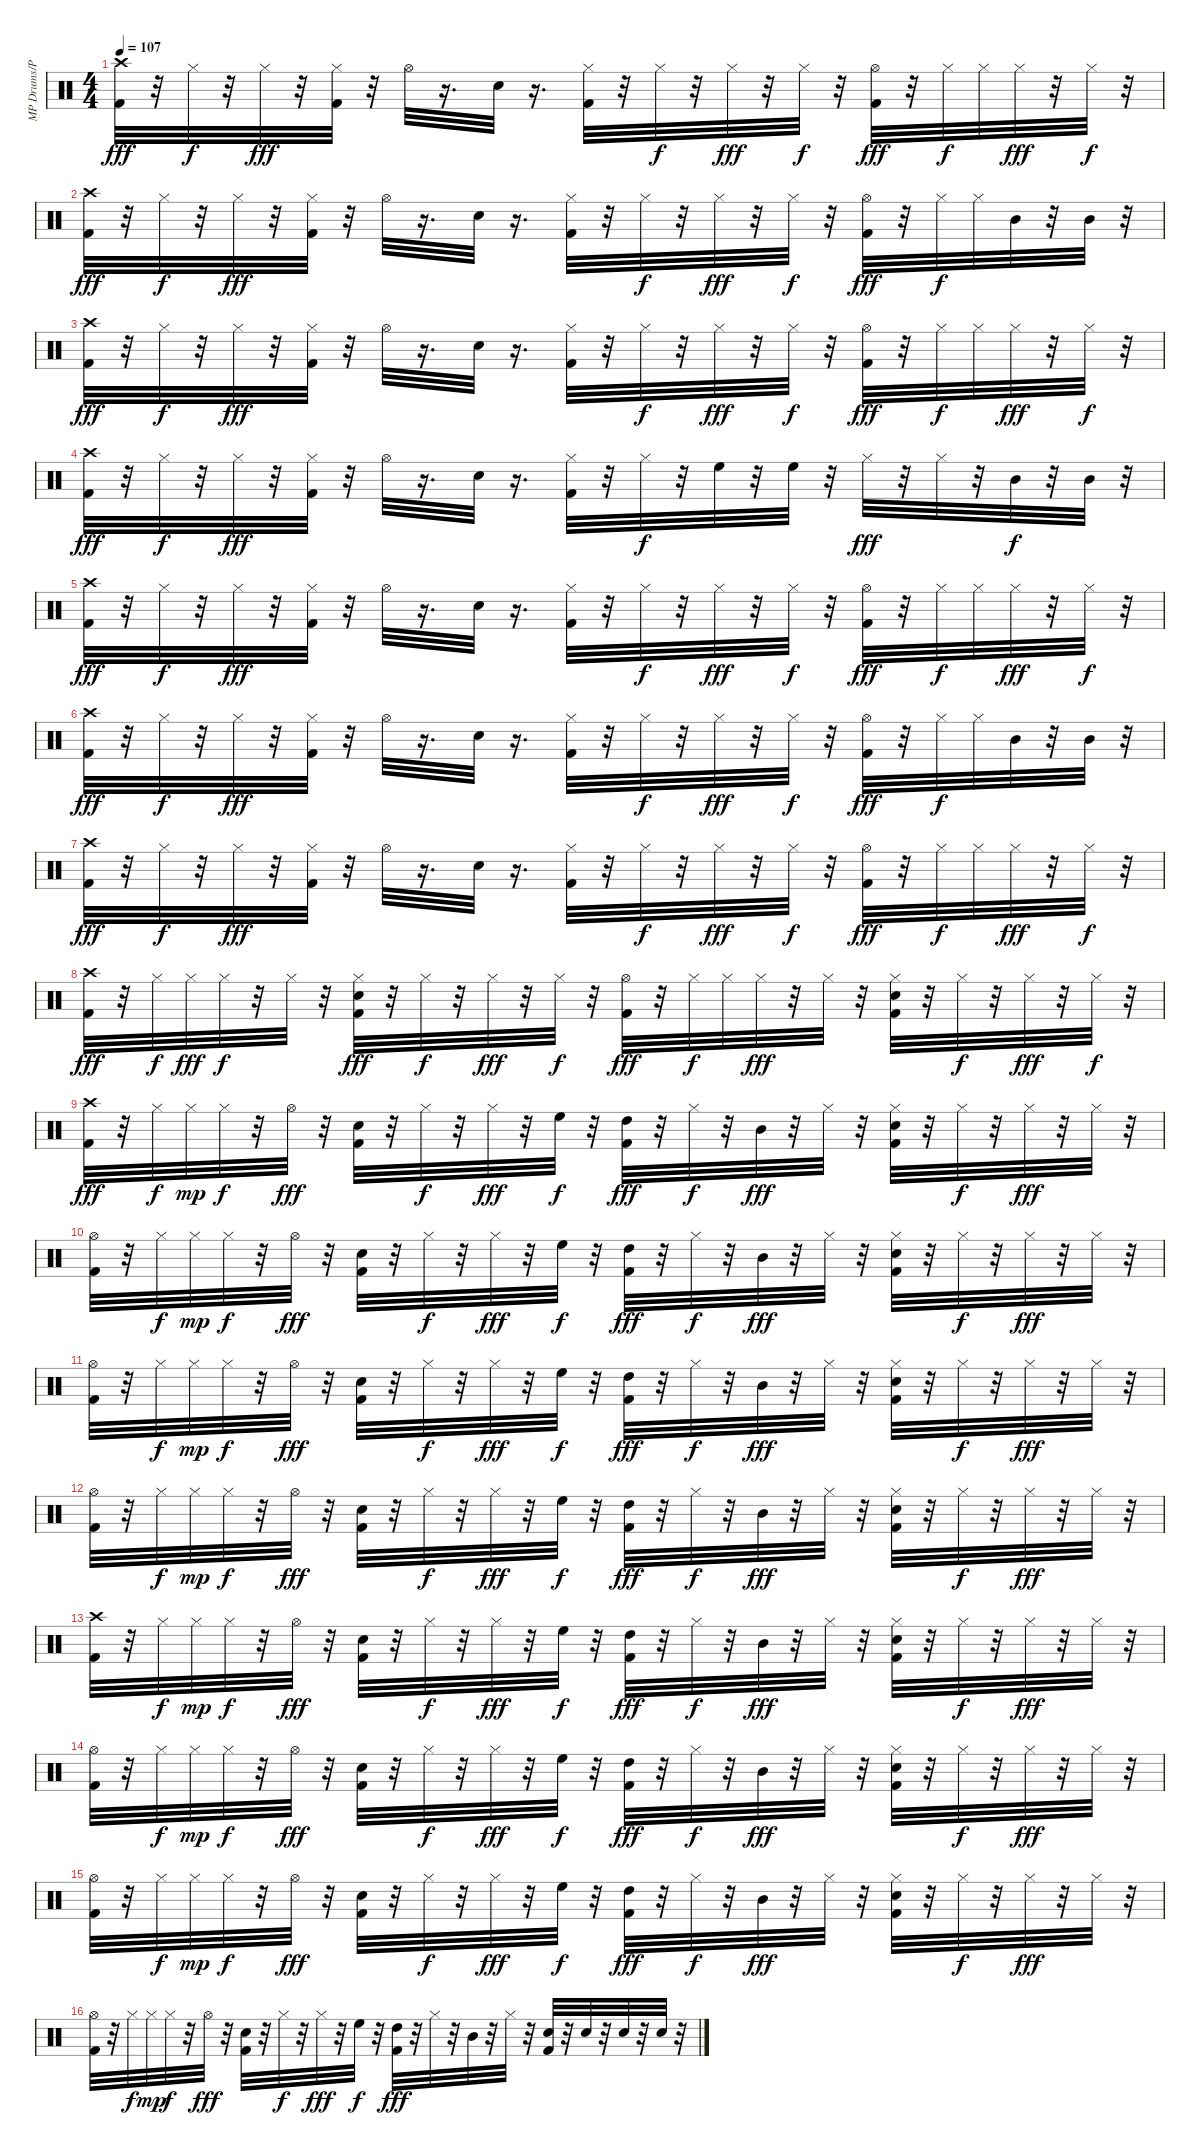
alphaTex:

\track ("MP Drums/Percussion" "MP Drums/P") {instrument percussion}
\staff {score}
\articulation defaults
\ts (4 4)
\tempo 107
\clef neutral
\ks c
("Kick (hit) 2" "Crash high (hit)").32{dy fff} r.32 "Hi-Hat (closed)".32{dy f} r.32 "Hi-Hat (closed)".32{dy fff} r.32 ("Kick (hit) 2" "Hi-Hat (closed)").32 r.32 "Hi-Hat (open)".32 r.16{d} "Snare (hit) 2".32 r.16{d} ("Kick (hit) 2" "Hi-Hat (closed)").32 r.32 "Hi-Hat (closed)".32{dy f} r.32 "Hi-Hat (closed)".32{dy fff} r.32 "Hi-Hat (closed)".32{dy f} r.32 ("Kick (hit) 2" "Hi-Hat (open)").32{dy fff} r.32 "Hi-Hat (closed)".32{dy f} "Hi-Hat (closed)".32 "Hi-Hat (closed)".32{dy fff} r.32 "Hi-Hat (closed)".32{dy f} r.32 |
("Kick (hit) 2" "Crash high (hit)").32{dy fff} r.32 "Hi-Hat (closed)".32{dy f} r.32 "Hi-Hat (closed)".32{dy fff} r.32 ("Kick (hit) 2" "Hi-Hat (closed)").32 r.32 "Hi-Hat (open)".32 r.16{d} "Snare (hit) 2".32 r.16{d} ("Kick (hit) 2" "Hi-Hat (closed)").32 r.32 "Hi-Hat (closed)".32{dy f} r.32 "Hi-Hat (closed)".32{dy fff} r.32 "Hi-Hat (closed)".32{dy f} r.32 ("Kick (hit) 2" "Hi-Hat (open)").32{dy fff} r.32 "Hi-Hat (closed)".32{dy f} "Hi-Hat (closed)".32 "Mid Tom (hit)".32 r.32 "Mid Tom (hit)".32 r.32 |
("Kick (hit) 2" "Crash high (hit)").32{dy fff} r.32 "Hi-Hat (closed)".32{dy f} r.32 "Hi-Hat (closed)".32{dy fff} r.32 ("Kick (hit) 2" "Hi-Hat (closed)").32 r.32 "Hi-Hat (open)".32 r.16{d} "Snare (hit) 2".32 r.16{d} ("Kick (hit) 2" "Hi-Hat (closed)").32 r.32 "Hi-Hat (closed)".32{dy f} r.32 "Hi-Hat (closed)".32{dy fff} r.32 "Hi-Hat (closed)".32{dy f} r.32 ("Kick (hit) 2" "Hi-Hat (open)").32{dy fff} r.32 "Hi-Hat (closed)".32{dy f} "Hi-Hat (closed)".32 "Hi-Hat (closed)".32{dy fff} r.32 "Hi-Hat (closed)".32{dy f} r.32 |
("Kick (hit) 2" "Crash high (hit)").32{dy fff} r.32 "Hi-Hat (closed)".32{dy f} r.32 "Hi-Hat (closed)".32{dy fff} r.32 ("Kick (hit) 2" "Hi-Hat (closed)").32 r.32 "Hi-Hat (open)".32 r.16{d} "Snare (hit) 2".32 r.16{d} ("Kick (hit) 2" "Hi-Hat (closed)").32 r.32 "Hi-Hat (closed)".32{dy f} r.32 "High Floor Tom (hit)".32 r.32 "High Floor Tom (hit)".32 r.32 "Hi-Hat (closed)".32{dy fff} r.32 "Hi-Hat (closed)".32 r.32 "Mid Tom (hit)".32{dy f} r.32 "Mid Tom (hit)".32 r.32 |
("Kick (hit) 2" "Crash high (hit)").32{dy fff} r.32 "Hi-Hat (closed)".32{dy f} r.32 "Hi-Hat (closed)".32{dy fff} r.32 ("Kick (hit) 2" "Hi-Hat (closed)").32 r.32 "Hi-Hat (open)".32 r.16{d} "Snare (hit) 2".32 r.16{d} ("Kick (hit) 2" "Hi-Hat (closed)").32 r.32 "Hi-Hat (closed)".32{dy f} r.32 "Hi-Hat (closed)".32{dy fff} r.32 "Hi-Hat (closed)".32{dy f} r.32 ("Kick (hit) 2" "Hi-Hat (open)").32{dy fff} r.32 "Hi-Hat (closed)".32{dy f} "Hi-Hat (closed)".32 "Hi-Hat (closed)".32{dy fff} r.32 "Hi-Hat (closed)".32{dy f} r.32 |
("Kick (hit) 2" "Crash high (hit)").32{dy fff} r.32 "Hi-Hat (closed)".32{dy f} r.32 "Hi-Hat (closed)".32{dy fff} r.32 ("Kick (hit) 2" "Hi-Hat (closed)").32 r.32 "Hi-Hat (open)".32 r.16{d} "Snare (hit) 2".32 r.16{d} ("Kick (hit) 2" "Hi-Hat (closed)").32 r.32 "Hi-Hat (closed)".32{dy f} r.32 "Hi-Hat (closed)".32{dy fff} r.32 "Hi-Hat (closed)".32{dy f} r.32 ("Kick (hit) 2" "Hi-Hat (open)").32{dy fff} r.32 "Hi-Hat (closed)".32{dy f} "Hi-Hat (closed)".32 "Mid Tom (hit)".32 r.32 "Mid Tom (hit)".32 r.32 |
("Kick (hit) 2" "Crash high (hit)").32{dy fff} r.32 "Hi-Hat (closed)".32{dy f} r.32 "Hi-Hat (closed)".32{dy fff} r.32 ("Kick (hit) 2" "Hi-Hat (closed)").32 r.32 "Hi-Hat (open)".32 r.16{d} "Snare (hit) 2".32 r.16{d} ("Kick (hit) 2" "Hi-Hat (closed)").32 r.32 "Hi-Hat (closed)".32{dy f} r.32 "Hi-Hat (closed)".32{dy fff} r.32 "Hi-Hat (closed)".32{dy f} r.32 ("Kick (hit) 2" "Hi-Hat (open)").32{dy fff} r.32 "Hi-Hat (closed)".32{dy f} "Hi-Hat (closed)".32 "Hi-Hat (closed)".32{dy fff} r.32 "Hi-Hat (closed)".32{dy f} r.32 |
("Kick (hit) 2" "Crash high (hit)").32{dy fff} r.32 "Hi-Hat (closed)".32{dy f} "Hi-Hat (closed)".32{dy fff} "Hi-Hat (closed)".32{dy f} r.32 "Hi-Hat (closed)".32 r.32 ("Kick (hit) 2" "Hi-Hat (closed)" "Snare (hit) 2").32{dy fff} r.32 "Hi-Hat (closed)".32{dy f} r.32 "Hi-Hat (closed)".32{dy fff} r.32 "Hi-Hat (closed)".32{dy f} r.32 ("Kick (hit) 2" "Hi-Hat (open)").32{dy fff} r.32 "Hi-Hat (closed)".32{dy f} "Hi-Hat (closed)".32 "Hi-Hat (closed)".32{dy fff} r.32 "Hi-Hat (closed)".32 r.32 ("Kick (hit) 2" "Hi-Hat (closed)" "Snare (hit) 2").32 r.32 "Hi-Hat (closed)".32{dy f} r.32 "Hi-Hat (closed)".32{dy fff} r.32 "Hi-Hat (closed)".32{dy f} r.32 |
("Kick (hit) 2" "Crash high (hit)").32{dy fff} r.32 "Hi-Hat (closed)".32{dy f} "Hi-Hat (closed)".32{dy mp} "Hi-Hat (closed)".32{dy f} r.32 "Hi-Hat (open)".32{dy fff} r.32 ("Kick (hit) 2" "Snare (hit) 2").32 r.32 "Hi-Hat (closed)".32{dy f} r.32 "Hi-Hat (closed)".32{dy fff} r.32 "High Floor Tom (hit)".32{dy f} r.32 ("Kick (hit) 2" "High Tom (hit)").32{dy fff} r.32 "Hi-Hat (closed)".32{dy f} r.32 "Mid Tom (hit)".32{dy fff} r.32 "Hi-Hat (closed)".32 r.32 ("Kick (hit) 2" "Hi-Hat (closed)" "Snare (hit) 2").32 r.32 "Hi-Hat (closed)".32{dy f} r.32 "Hi-Hat (closed)".32{dy fff} r.32 "Hi-Hat (closed)".32 r.32 |
("Kick (hit) 2" "Hi-Hat (open)").32 r.32 "Hi-Hat (closed)".32{dy f} "Hi-Hat (closed)".32{dy mp} "Hi-Hat (closed)".32{dy f} r.32 "Hi-Hat (open)".32{dy fff} r.32 ("Kick (hit) 2" "Snare (hit) 2").32 r.32 "Hi-Hat (closed)".32{dy f} r.32 "Hi-Hat (closed)".32{dy fff} r.32 "High Floor Tom (hit)".32{dy f} r.32 ("Kick (hit) 2" "High Tom (hit)").32{dy fff} r.32 "Hi-Hat (closed)".32{dy f} r.32 "Mid Tom (hit)".32{dy fff} r.32 "Hi-Hat (closed)".32 r.32 ("Kick (hit) 2" "Hi-Hat (closed)" "Snare (hit) 2").32 r.32 "Hi-Hat (closed)".32{dy f} r.32 "Hi-Hat (closed)".32{dy fff} r.32 "Hi-Hat (closed)".32 r.32 |
("Kick (hit) 2" "Hi-Hat (open)").32 r.32 "Hi-Hat (closed)".32{dy f} "Hi-Hat (closed)".32{dy mp} "Hi-Hat (closed)".32{dy f} r.32 "Hi-Hat (open)".32{dy fff} r.32 ("Kick (hit) 2" "Snare (hit) 2").32 r.32 "Hi-Hat (closed)".32{dy f} r.32 "Hi-Hat (closed)".32{dy fff} r.32 "High Floor Tom (hit)".32{dy f} r.32 ("Kick (hit) 2" "High Tom (hit)").32{dy fff} r.32 "Hi-Hat (closed)".32{dy f} r.32 "Mid Tom (hit)".32{dy fff} r.32 "Hi-Hat (closed)".32 r.32 ("Kick (hit) 2" "Hi-Hat (closed)" "Snare (hit) 2").32 r.32 "Hi-Hat (closed)".32{dy f} r.32 "Hi-Hat (closed)".32{dy fff} r.32 "Hi-Hat (closed)".32 r.32 |
("Kick (hit) 2" "Hi-Hat (open)").32 r.32 "Hi-Hat (closed)".32{dy f} "Hi-Hat (closed)".32{dy mp} "Hi-Hat (closed)".32{dy f} r.32 "Hi-Hat (open)".32{dy fff} r.32 ("Kick (hit) 2" "Snare (hit) 2").32 r.32 "Hi-Hat (closed)".32{dy f} r.32 "Hi-Hat (closed)".32{dy fff} r.32 "High Floor Tom (hit)".32{dy f} r.32 ("Kick (hit) 2" "High Tom (hit)").32{dy fff} r.32 "Hi-Hat (closed)".32{dy f} r.32 "Mid Tom (hit)".32{dy fff} r.32 "Hi-Hat (closed)".32 r.32 ("Kick (hit) 2" "Hi-Hat (closed)" "Snare (hit) 2").32 r.32 "Hi-Hat (closed)".32{dy f} r.32 "Hi-Hat (closed)".32{dy fff} r.32 "Hi-Hat (closed)".32 r.32 |
("Kick (hit) 2" "Crash high (hit)").32 r.32 "Hi-Hat (closed)".32{dy f} "Hi-Hat (closed)".32{dy mp} "Hi-Hat (closed)".32{dy f} r.32 "Hi-Hat (open)".32{dy fff} r.32 ("Kick (hit) 2" "Snare (hit) 2").32 r.32 "Hi-Hat (closed)".32{dy f} r.32 "Hi-Hat (closed)".32{dy fff} r.32 "High Floor Tom (hit)".32{dy f} r.32 ("Kick (hit) 2" "High Tom (hit)").32{dy fff} r.32 "Hi-Hat (closed)".32{dy f} r.32 "Mid Tom (hit)".32{dy fff} r.32 "Hi-Hat (closed)".32 r.32 ("Kick (hit) 2" "Hi-Hat (closed)" "Snare (hit) 2").32 r.32 "Hi-Hat (closed)".32{dy f} r.32 "Hi-Hat (closed)".32{dy fff} r.32 "Hi-Hat (closed)".32 r.32 |
("Kick (hit) 2" "Hi-Hat (open)").32 r.32 "Hi-Hat (closed)".32{dy f} "Hi-Hat (closed)".32{dy mp} "Hi-Hat (closed)".32{dy f} r.32 "Hi-Hat (open)".32{dy fff} r.32 ("Kick (hit) 2" "Snare (hit) 2").32 r.32 "Hi-Hat (closed)".32{dy f} r.32 "Hi-Hat (closed)".32{dy fff} r.32 "High Floor Tom (hit)".32{dy f} r.32 ("Kick (hit) 2" "High Tom (hit)").32{dy fff} r.32 "Hi-Hat (closed)".32{dy f} r.32 "Mid Tom (hit)".32{dy fff} r.32 "Hi-Hat (closed)".32 r.32 ("Kick (hit) 2" "Hi-Hat (closed)" "Snare (hit) 2").32 r.32 "Hi-Hat (closed)".32{dy f} r.32 "Hi-Hat (closed)".32{dy fff} r.32 "Hi-Hat (closed)".32 r.32 |
("Kick (hit) 2" "Hi-Hat (open)").32 r.32 "Hi-Hat (closed)".32{dy f} "Hi-Hat (closed)".32{dy mp} "Hi-Hat (closed)".32{dy f} r.32 "Hi-Hat (open)".32{dy fff} r.32 ("Kick (hit) 2" "Snare (hit) 2").32 r.32 "Hi-Hat (closed)".32{dy f} r.32 "Hi-Hat (closed)".32{dy fff} r.32 "High Floor Tom (hit)".32{dy f} r.32 ("Kick (hit) 2" "High Tom (hit)").32{dy fff} r.32 "Hi-Hat (closed)".32{dy f} r.32 "Mid Tom (hit)".32{dy fff} r.32 "Hi-Hat (closed)".32 r.32 ("Kick (hit) 2" "Hi-Hat (closed)" "Snare (hit) 2").32 r.32 "Hi-Hat (closed)".32{dy f} r.32 "Hi-Hat (closed)".32{dy fff} r.32 "Hi-Hat (closed)".32 r.32 |
("Kick (hit) 2" "Hi-Hat (open)").32 r.32 "Hi-Hat (closed)".32{dy f} "Hi-Hat (closed)".32{dy mp} "Hi-Hat (closed)".32{dy f} r.32 "Hi-Hat (open)".32{dy fff} r.32 ("Kick (hit) 2" "Snare (hit) 2").32 r.32 "Hi-Hat (closed)".32{dy f} r.32 "Hi-Hat (closed)".32{dy fff} r.32 "High Floor Tom (hit)".32{dy f} r.32 ("Kick (hit) 2" "High Tom (hit)").32{dy fff} r.32 "Hi-Hat (closed)".32 r.32 "Mid Tom (hit)".32 r.32 "Hi-Hat (closed)".32 r.32 ("Kick (hit) 2" "Snare (hit) 2").32 r.32 "Snare (hit) 2".32 r.32 "Snare (hit) 2".32 r.32 "Snare (hit) 2".32 r.32
